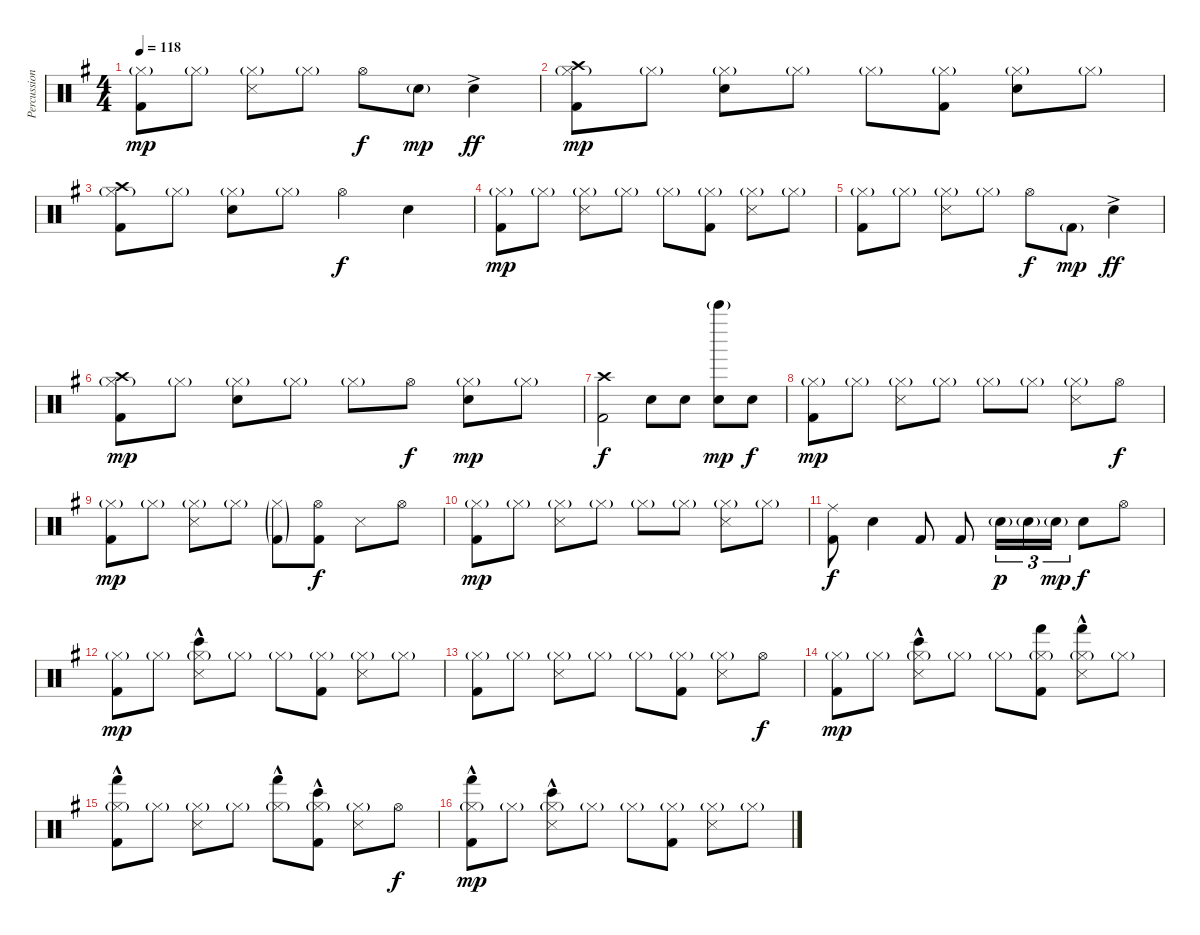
\track ("Percussion" "Percussion") {instrument percussion}
\staff {score}
\articulation defaults
\ts (4 4)
\tempo 118
\clef neutral
\ks eminor
("Hi-Hat (closed)"{g} "Kick (hit) 2").8{dy mp} "Hi-Hat (closed)"{g}.8 ("Hi-Hat (closed)"{g} "Snare (side stick) 3").8 "Hi-Hat (closed)"{g}.8 "Hi-Hat (open)".8{dy f} "Electric Snare (hit)"{g}.8{dy mp} "Electric Snare (hit)"{ac}.4{dy ff} |
("Crash high (hit)" "Hi-Hat (closed)"{g} "Kick (hit) 2").8{dy mp} "Hi-Hat (closed)"{g}.8 ("Hi-Hat (closed)"{g} "Electric Snare (hit)").8 "Hi-Hat (closed)"{g}.8 "Hi-Hat (closed)"{g}.8 ("Hi-Hat (closed)"{g} "Kick (hit) 2").8 ("Hi-Hat (closed)"{g} "Electric Snare (hit)").8 "Hi-Hat (closed)"{g}.8 |
("Crash high (hit)" "Hi-Hat (closed)"{g} "Kick (hit) 2").8 "Hi-Hat (closed)"{g}.8 ("Hi-Hat (closed)"{g} "Electric Snare (hit)").8 "Hi-Hat (closed)"{g}.8 "Hi-Hat (open)".4{dy f} "Electric Snare (hit)".4 |
("Hi-Hat (closed)"{g} "Kick (hit) 2").8{dy mp} "Hi-Hat (closed)"{g}.8 ("Hi-Hat (closed)"{g} "Snare (side stick) 3").8 "Hi-Hat (closed)"{g}.8 "Hi-Hat (closed)"{g}.8 ("Hi-Hat (closed)"{g} "Kick (hit) 2").8 ("Hi-Hat (closed)"{g} "Snare (side stick) 3").8 "Hi-Hat (closed)"{g}.8 |
("Hi-Hat (closed)"{g} "Kick (hit) 2").8 "Hi-Hat (closed)"{g}.8 ("Hi-Hat (closed)"{g} "Snare (side stick) 3").8 "Hi-Hat (closed)"{g}.8 "Hi-Hat (open)".8{dy f} "Kick (hit) 2"{g}.8{dy mp} "Electric Snare (hit)"{ac}.4{dy ff} |
("Crash high (hit)" "Hi-Hat (closed)"{g} "Kick (hit) 2").8{dy mp} "Hi-Hat (closed)"{g}.8 ("Hi-Hat (closed)"{g} "Electric Snare (hit)").8 "Hi-Hat (closed)"{g}.8 "Hi-Hat (closed)"{g}.8 "Hi-Hat (open)".8{dy f} ("Hi-Hat (closed)"{g} "Electric Snare (hit)").8{dy mp} "Hi-Hat (closed)"{g}.8 |
("Crash high (hit)" "Kick (hit) 2").2{dy f} "Electric Snare (hit)".8 "Electric Snare (hit)".8 ("Bell Tree (hit)"{g} "Electric Snare (hit)").8{dy mp} "Electric Snare (hit)".8{dy f} |
("Hi-Hat (closed)"{g} "Kick (hit) 2").8{dy mp} "Hi-Hat (closed)"{g}.8 ("Hi-Hat (closed)"{g} "Snare (side stick) 3").8 "Hi-Hat (closed)"{g}.8 "Hi-Hat (closed)"{g}.8 "Hi-Hat (closed)"{g}.8 ("Hi-Hat (closed)"{g} "Snare (side stick) 3").8 "Hi-Hat (open)".8{dy f} |
("Hi-Hat (closed)"{g} "Kick (hit) 2").8{dy mp} "Hi-Hat (closed)"{g}.8 ("Hi-Hat (closed)"{g} "Snare (side stick) 3").8 "Hi-Hat (closed)"{g}.8 ("Hi-Hat (closed)"{g} "Kick (hit) 2"{g}).8 ("Hi-Hat (open)" "Kick (hit) 2").8{dy f} "Snare (side stick) 3".8 "Hi-Hat (open)".8 |
("Hi-Hat (closed)"{g} "Kick (hit) 2").8{dy mp} "Hi-Hat (closed)"{g}.8 ("Hi-Hat (closed)"{g} "Snare (side stick) 3").8 "Hi-Hat (closed)"{g}.8 "Hi-Hat (closed)"{g}.8 "Hi-Hat (closed)"{g}.8 ("Hi-Hat (closed)"{g} "Snare (side stick) 3").8 "Hi-Hat (closed)"{g}.8 |
("Ride (middle)" "Kick (hit) 2").8{dy f} "Electric Snare (hit)".4 "Kick (hit) 2".8 "Kick (hit) 2".8 "Electric Snare (hit)"{g}.16{tu (3 2) dy p} "Electric Snare (hit)"{g}.16{tu (3 2)} "Electric Snare (hit)"{g}.16{tu (3 2) dy mp} "Electric Snare (hit)".8{dy f} "Hi-Hat (open)".8 |
("Hi-Hat (closed)"{g} "Kick (hit) 2").8{dy mp} "Hi-Hat (closed)"{g}.8 ("Bongo High (hit)"{hac} "Hi-Hat (closed)"{g} "Snare (side stick) 3").8 "Hi-Hat (closed)"{g}.8 "Hi-Hat (closed)"{g}.8 ("Hi-Hat (closed)"{g} "Kick (hit) 2").8 ("Hi-Hat (closed)"{g} "Snare (side stick) 3").8 "Hi-Hat (closed)"{g}.8 |
("Hi-Hat (closed)"{g} "Kick (hit) 2").8 "Hi-Hat (closed)"{g}.8 ("Hi-Hat (closed)"{g} "Snare (side stick) 3").8 "Hi-Hat (closed)"{g}.8 "Hi-Hat (closed)"{g}.8 ("Hi-Hat (closed)"{g} "Kick (hit) 2").8 ("Hi-Hat (closed)"{g} "Snare (side stick) 3").8 "Hi-Hat (open)".8{dy f} |
("Hi-Hat (closed)"{g} "Kick (hit) 2").8{dy mp} "Hi-Hat (closed)"{g}.8 ("Bongo High (hit)"{hac} "Hi-Hat (closed)"{g} "Snare (side stick) 3").8 "Hi-Hat (closed)"{g}.8 "Hi-Hat (closed)"{g}.8 ("Hand (hit)" "Hi-Hat (closed)"{g} "Kick (hit) 2").8 ("Hand (hit)"{hac} "Hi-Hat (closed)"{g} "Snare (side stick) 3").8 "Hi-Hat (closed)"{g}.8 |
("Hand (hit)"{hac} "Hi-Hat (closed)"{g} "Kick (hit) 2").8 "Hi-Hat (closed)"{g}.8 ("Hi-Hat (closed)"{g} "Snare (side stick) 3").8 "Hi-Hat (closed)"{g}.8 ("Hand (hit)"{hac} "Hi-Hat (closed)"{g}).8 ("Bongo High (hit)"{hac} "Hi-Hat (closed)"{g} "Kick (hit) 2").8 ("Hi-Hat (closed)"{g} "Snare (side stick) 3").8 "Hi-Hat (open)".8{dy f} |
("Hand (hit)"{hac} "Hi-Hat (closed)"{g} "Kick (hit) 2").8{dy mp} "Hi-Hat (closed)"{g}.8 ("Bongo High (hit)"{hac} "Hi-Hat (closed)"{g} "Snare (side stick) 3").8 "Hi-Hat (closed)"{g}.8 "Hi-Hat (closed)"{g}.8 ("Hi-Hat (closed)"{g} "Kick (hit) 2").8 ("Hi-Hat (closed)"{g} "Snare (side stick) 3").8 "Hi-Hat (closed)"{g}.8
